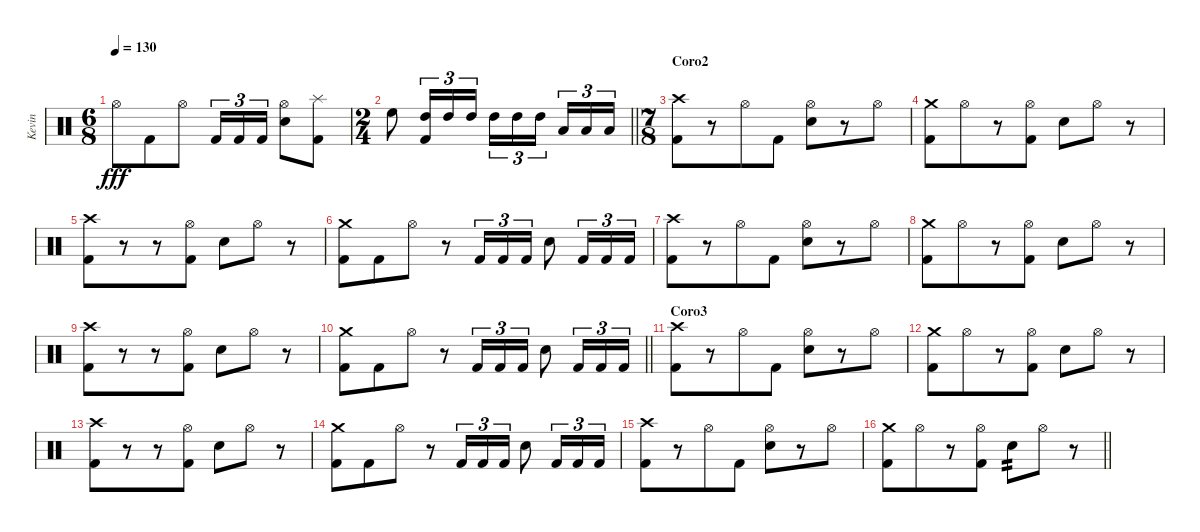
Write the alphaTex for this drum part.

\track ("Kevin" "Kevin") {instrument percussion}
\staff {score}
\articulation defaults
\ts (6 8)
\tempo 130
\clef neutral
\ks c "Hi-Hat (open)".8{dy fff} "Kick (hit) 2".8 "Hi-Hat (open)".8 "Kick (hit) 2".16{tu (3 2)} "Kick (hit) 2".16{tu (3 2)} "Kick (hit) 2".16{tu (3 2)}
("Hi-Hat (open)" "Electric Snare (hit)").8 ("Splash (hit)" "Kick (hit) 2").8 |
\ts (2 4)
\barLineRight lightlight "High Floor Tom (hit)".8
("High Tom (hit)" "Kick (hit) 2").16{tu (3 2)} "High Tom (hit)".16{tu (3 2)} "High Tom (hit)".16{tu (3 2)} "High Tom (hit)".16{tu (3 2)} "High Tom (hit)".16{tu (3 2)} "High Tom (hit)".16{tu (3 2) beam splitsecondary} "Low Tom (hit)".16{tu (3 2)} "Low Tom (hit)".16{tu (3 2)} "Low Tom (hit)".16{tu (3 2)} |
\ts (7 8)
\section ("" "Coro2")
("Crash high (hit)" "Kick (hit) 2").8 r.8 "Hi-Hat (open)".8 "Kick (hit) 2".8 ("Hi-Hat (open)" "Snare (hit) 2").8 r.8 "Hi-Hat (open)".8 |
("Crash medium (hit)" "Kick (hit) 2").8 "Hi-Hat (open)".8 r.8 ("Hi-Hat (open)" "Kick (hit) 2").8 "Snare (hit) 2".8 "Hi-Hat (open)".8 r.8 |
("Crash high (hit)" "Kick (hit) 2").8 r.8 r.8 ("Hi-Hat (open)" "Kick (hit) 2").8 "Snare (hit) 2".8 "Hi-Hat (open)".8 r.8 |
("Crash medium (hit)" "Kick (hit) 2").8 "Kick (hit) 2".8 "Hi-Hat (open)".8 r.8 "Kick (hit) 2".16{tu (3 2)} "Kick (hit) 2".16{tu (3 2)} "Kick (hit) 2".16{tu (3 2)} "Snare (hit) 2".8 "Kick (hit) 2".16{tu (3 2)} "Kick (hit) 2".16{tu (3 2)} "Kick (hit) 2".16{tu (3 2)} |
("Crash high (hit)" "Kick (hit) 2").8 r.8 "Hi-Hat (open)".8 "Kick (hit) 2".8 ("Hi-Hat (open)" "Snare (hit) 2").8 r.8 "Hi-Hat (open)".8 |
("Crash medium (hit)" "Kick (hit) 2").8 "Hi-Hat (open)".8 r.8 ("Hi-Hat (open)" "Kick (hit) 2").8 "Snare (hit) 2".8 "Hi-Hat (open)".8 r.8 |
("Crash high (hit)" "Kick (hit) 2").8 r.8 r.8 ("Hi-Hat (open)" "Kick (hit) 2").8 "Snare (hit) 2".8 "Hi-Hat (open)".8 r.8 |
\barLineRight lightlight
("Crash medium (hit)" "Kick (hit) 2").8 "Kick (hit) 2".8 "Hi-Hat (open)".8 r.8 "Kick (hit) 2".16{tu (3 2)} "Kick (hit) 2".16{tu (3 2)} "Kick (hit) 2".16{tu (3 2)} "Snare (hit) 2".8 "Kick (hit) 2".16{tu (3 2)} "Kick (hit) 2".16{tu (3 2)} "Kick (hit) 2".16{tu (3 2)} |
\section ("" "Coro3")
("Crash high (hit)" "Kick (hit) 2").8 r.8 "Hi-Hat (open)".8 "Kick (hit) 2".8 ("Hi-Hat (open)" "Snare (hit) 2").8 r.8 "Hi-Hat (open)".8 |
("Crash medium (hit)" "Kick (hit) 2").8 "Hi-Hat (open)".8 r.8 ("Hi-Hat (open)" "Kick (hit) 2").8 "Snare (hit) 2".8 "Hi-Hat (open)".8 r.8 |
("Crash high (hit)" "Kick (hit) 2").8 r.8 r.8 ("Hi-Hat (open)" "Kick (hit) 2").8 "Snare (hit) 2".8 "Hi-Hat (open)".8 r.8 |
("Crash medium (hit)" "Kick (hit) 2").8 "Kick (hit) 2".8 "Hi-Hat (open)".8 r.8 "Kick (hit) 2".16{tu (3 2)} "Kick (hit) 2".16{tu (3 2)} "Kick (hit) 2".16{tu (3 2)} "Snare (hit) 2".8 "Kick (hit) 2".16{tu (3 2)} "Kick (hit) 2".16{tu (3 2)} "Kick (hit) 2".16{tu (3 2)} |
("Crash high (hit)" "Kick (hit) 2").8 r.8 "Hi-Hat (open)".8 "Kick (hit) 2".8 ("Hi-Hat (open)" "Snare (hit) 2").8 r.8 "Hi-Hat (open)".8 |
\barLineRight lightlight
("Crash medium (hit)" "Kick (hit) 2").8 "Hi-Hat (open)".8 r.8 ("Hi-Hat (open)" "Kick (hit) 2").8 "Snare (hit) 2".8{tp 2} "Hi-Hat (open)".8 r.8
